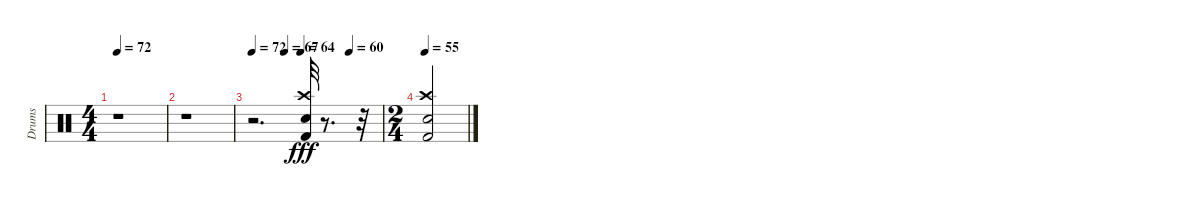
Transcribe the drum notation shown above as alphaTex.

\track ("Drums" "Drums") {instrument percussion}
\staff {score}
\articulation defaults
\ts (4 4)
\tempo 72
\clef neutral
\ks c
r.1{dy fff} |
r.1 |
\tempo 72
\tempo (67 0.25)
\tempo (64 0.375)
\tempo (60 0.75)
r.2{d} ("Kick (hit) 2" "Crash high (hit)" "Snare (hit) 2").32 r.8{d} r.32 |
\ts (2 4)
\tempo 55
("Kick (hit) 2" "Crash high (hit)" "Snare (hit) 2").2
